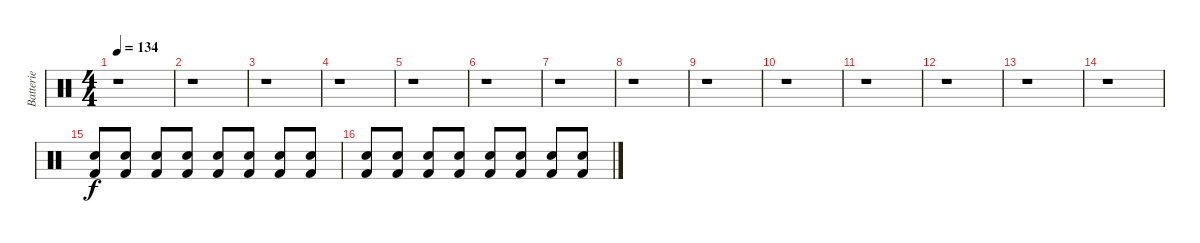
\track ("Batterie" "Batterie") {instrument percussion}
\staff {score}
\articulation defaults
\ts (4 4)
\tempo 134
\clef neutral
\ks c
r.1{dy f} |
r.1 |
r.1 |
r.1 |
r.1 |
r.1 |
r.1 |
r.1 |
r.1 |
r.1 |
r.1 |
r.1 |
r.1 |
r.1{volume 0} |
("Kick (hit) 2" "Snare (hit) 2").8{volume 4} ("Kick (hit) 2" "Snare (hit) 2").8 ("Kick (hit) 2" "Snare (hit) 2").8 ("Kick (hit) 2" "Snare (hit) 2").8 ("Kick (hit) 2" "Snare (hit) 2").8 ("Kick (hit) 2" "Snare (hit) 2").8 ("Kick (hit) 2" "Snare (hit) 2").8 ("Kick (hit) 2" "Snare (hit) 2").8 |
("Kick (hit) 2" "Snare (hit) 2").8 ("Kick (hit) 2" "Snare (hit) 2").8 ("Kick (hit) 2" "Snare (hit) 2").8 ("Kick (hit) 2" "Snare (hit) 2").8 ("Kick (hit) 2" "Snare (hit) 2").8 ("Kick (hit) 2" "Snare (hit) 2").8 ("Kick (hit) 2" "Snare (hit) 2").8 ("Kick (hit) 2" "Snare (hit) 2").8
